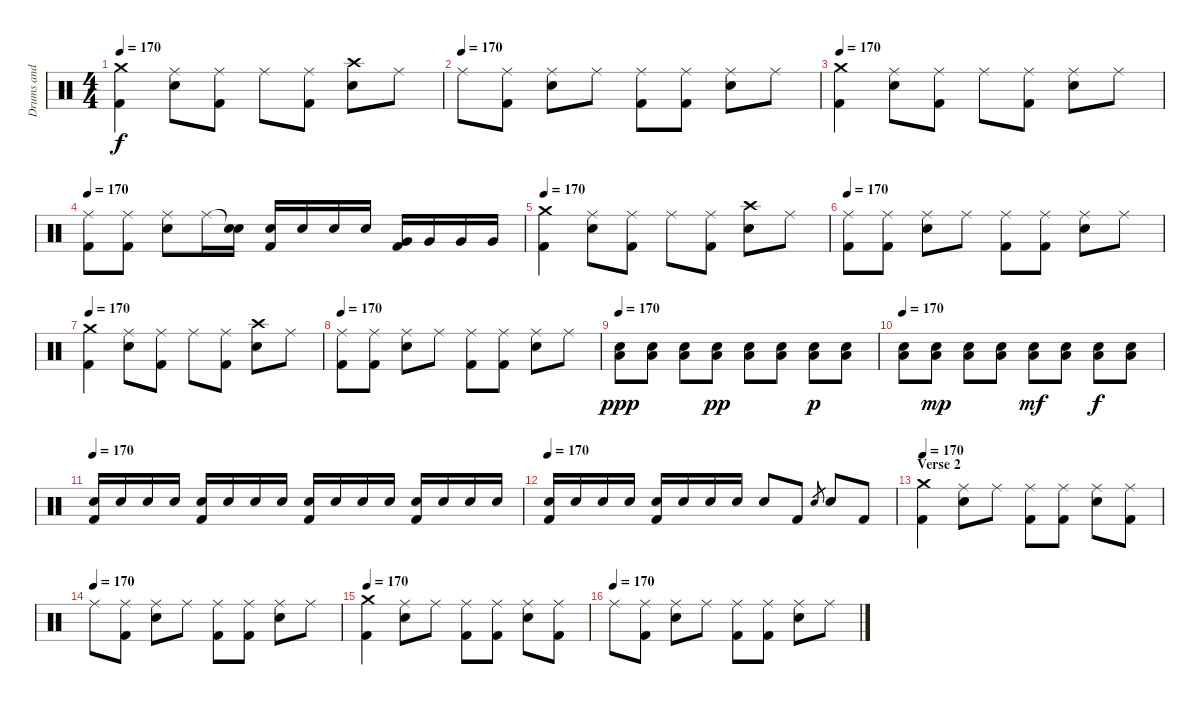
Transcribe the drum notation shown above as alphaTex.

\track ("Drums and Percussion" "Drums and ") {instrument percussion}
\staff {score}
\articulation defaults
\ts (4 4)
\tempo 170
\clef neutral
\ks c
("Crash medium (hit)" "Kick (hit) 2").4{dy f} ("Ride (middle)" "Electric Snare (hit)").8 ("Ride (middle)" "Kick (hit) 2").8 "Ride (middle)".8 ("Ride (middle)" "Kick (hit) 2").8 ("Crash high (hit)" "Electric Snare (hit)").8 "Ride (middle)".8 |
\tempo (170)
"Ride (middle)".8 ("Ride (middle)" "Kick (hit) 2").8 ("Ride (middle)" "Electric Snare (hit)").8 "Ride (middle)".8 ("Ride (middle)" "Kick (hit) 2").8 ("Ride (middle)" "Kick (hit) 2").8 ("Ride (middle)" "Electric Snare (hit)").8 "Ride (middle)".8 |
\tempo 170
("Crash medium (hit)" "Kick (hit) 2").4 ("Ride (middle)" "Electric Snare (hit)").8 ("Ride (middle)" "Kick (hit) 2").8 "Ride (middle)".8 ("Ride (middle)" "Kick (hit) 2").8 ("Ride (middle)" "Electric Snare (hit)").8 "Ride (middle)".8 |
\tempo 170
("Ride (middle)" "Kick (hit) 2").8 ("Ride (middle)" "Kick (hit) 2").8 ("Ride (middle)" "Electric Snare (hit)").8 "Ride (middle)".16 ("Snare (hit)"{t} "Electric Snare (hit)").16 ("Electric Snare (hit)" "Kick (hit) 2").16 "Electric Snare (hit)".16 "Electric Snare (hit)".16 "Electric Snare (hit)".16 ("Very Low Tom (hit)" "Kick (hit) 2").16 "Very Low Tom (hit)".16 "Very Low Tom (hit)".16 "Very Low Tom (hit)".16 |
\tempo 170
("Crash medium (hit)" "Kick (hit) 2").4 ("Ride (middle)" "Electric Snare (hit)").8 ("Ride (middle)" "Kick (hit) 2").8 "Ride (middle)".8 ("Ride (middle)" "Kick (hit) 2").8 ("Crash high (hit)" "Electric Snare (hit)").8 "Ride (middle)".8 |
\tempo 170
("Ride (middle)" "Kick (hit) 2").8 ("Ride (middle)" "Kick (hit) 2").8 ("Ride (middle)" "Electric Snare (hit)").8 "Ride (middle)".8 ("Ride (middle)" "Kick (hit) 2").8 ("Ride (middle)" "Kick (hit) 2").8 ("Ride (middle)" "Electric Snare (hit)").8 "Ride (middle)".8 |
\tempo 170
("Crash medium (hit)" "Kick (hit) 2").4 ("Ride (middle)" "Electric Snare (hit)").8 ("Ride (middle)" "Kick (hit) 2").8 "Ride (middle)".8 ("Ride (middle)" "Kick (hit) 2").8 ("Crash high (hit)" "Electric Snare (hit)").8 "Ride (middle)".8 |
\tempo 170
("Ride (middle)" "Kick (hit) 2").8 ("Ride (middle)" "Kick (hit) 2").8 ("Ride (middle)" "Electric Snare (hit)").8 "Ride (middle)".8 ("Ride (middle)" "Kick (hit) 2").8 ("Ride (middle)" "Kick (hit) 2").8 ("Ride (middle)" "Electric Snare (hit)").8 "Ride (middle)".8 |
\tempo 170
("Electric Snare (hit)" "Low Floor Tom (hit)").8{dy ppp} ("Electric Snare (hit)" "Low Floor Tom (hit)").8 ("Electric Snare (hit)" "Low Floor Tom (hit)").8 ("Electric Snare (hit)" "Low Floor Tom (hit)").8{dy pp} ("Electric Snare (hit)" "Low Floor Tom (hit)").8 ("Electric Snare (hit)" "Low Floor Tom (hit)").8 ("Electric Snare (hit)" "Low Floor Tom (hit)").8{dy p} ("Electric Snare (hit)" "Low Floor Tom (hit)").8 |
\tempo 170
("Electric Snare (hit)" "Low Floor Tom (hit)").8 ("Electric Snare (hit)" "Low Floor Tom (hit)").8{dy mp} ("Electric Snare (hit)" "Low Floor Tom (hit)").8 ("Electric Snare (hit)" "Low Floor Tom (hit)").8 ("Electric Snare (hit)" "Low Floor Tom (hit)").8{dy mf} ("Electric Snare (hit)" "Low Floor Tom (hit)").8 ("Electric Snare (hit)" "Low Floor Tom (hit)").8{dy f} ("Electric Snare (hit)" "Low Floor Tom (hit)").8 |
\tempo 170
("Electric Snare (hit)" "Kick (hit) 2").16 "Electric Snare (hit)".16 "Electric Snare (hit)".16 "Electric Snare (hit)".16 ("Electric Snare (hit)" "Kick (hit) 2").16 "Electric Snare (hit)".16 "Electric Snare (hit)".16 "Electric Snare (hit)".16 ("Electric Snare (hit)" "Kick (hit) 2").16 "Electric Snare (hit)".16 "Electric Snare (hit)".16 "Electric Snare (hit)".16 ("Electric Snare (hit)" "Kick (hit) 2").16 "Electric Snare (hit)".16 "Electric Snare (hit)".16 "Electric Snare (hit)".16 |
\tempo 170
("Electric Snare (hit)" "Kick (hit) 2").16 "Electric Snare (hit)".16 "Electric Snare (hit)".16 "Electric Snare (hit)".16 ("Electric Snare (hit)" "Kick (hit) 2").16 "Electric Snare (hit)".16 "Electric Snare (hit)".16 "Electric Snare (hit)".16 "Electric Snare (hit)".8 "Kick (hit) 2".8 "Electric Snare (hit)".8{gr} "Electric Snare (hit)".8 "Kick (hit) 2".8 |
\section ("" "Verse 2")
\tempo 170
("Crash medium (hit)" "Kick (hit) 2").4 ("Ride (middle)" "Electric Snare (hit)").8 "Ride (middle)".8 ("Ride (middle)" "Kick (hit) 2").8 ("Ride (middle)" "Kick (hit) 2").8 ("Ride (middle)" "Electric Snare (hit)").8 ("Ride (middle)" "Kick (hit) 2").8 |
\tempo (170)
"Ride (middle)".8 ("Ride (middle)" "Kick (hit) 2").8 ("Ride (middle)" "Electric Snare (hit)").8 "Ride (middle)".8 ("Ride (middle)" "Kick (hit) 2").8 ("Ride (middle)" "Kick (hit) 2").8 ("Ride (middle)" "Electric Snare (hit)").8 "Ride (middle)".8 |
\tempo 170
("Crash medium (hit)" "Kick (hit) 2").4 ("Ride (middle)" "Electric Snare (hit)").8 "Ride (middle)".8 ("Ride (middle)" "Kick (hit) 2").8 ("Ride (middle)" "Kick (hit) 2").8 ("Ride (middle)" "Electric Snare (hit)").8 ("Ride (middle)" "Kick (hit) 2").8 |
\tempo (170)
"Ride (middle)".8 ("Ride (middle)" "Kick (hit) 2").8 ("Ride (middle)" "Electric Snare (hit)").8 "Ride (middle)".8 ("Ride (middle)" "Kick (hit) 2").8 ("Ride (middle)" "Kick (hit) 2").8 ("Ride (middle)" "Electric Snare (hit)").8 "Ride (middle)".8
